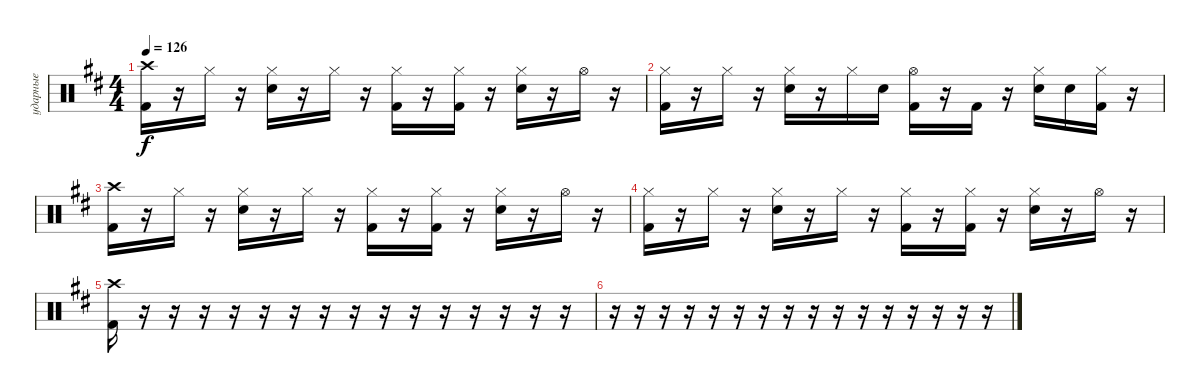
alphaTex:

\track ("ударные" "ударные") {instrument percussion}
\staff {score}
\articulation defaults
\ts (4 4)
\tempo 126
\clef neutral
\ks d
("Crash high (hit)" "Kick (hit) 2").16{dy f} r.16 "Hi-Hat (closed)".16 r.16 ("Hi-Hat (closed)" "Electric Snare (hit)").16 r.16 "Hi-Hat (closed)".16 r.16 ("Hi-Hat (closed)" "Kick (hit) 2").16 r.16 ("Hi-Hat (closed)" "Kick (hit) 2").16 r.16 ("Hi-Hat (closed)" "Electric Snare (hit)").16 r.16 "Hi-Hat (open)".16 r.16 |
("Hi-Hat (closed)" "Kick (hit) 2").16 r.16 "Hi-Hat (closed)".16 r.16 ("Hi-Hat (closed)" "Electric Snare (hit)").16 r.16 "Hi-Hat (closed)".16 "Electric Snare (hit)".16 ("Hi-Hat (open)" "Kick (hit) 2").16 r.16 "Kick (hit) 2".16 r.16 ("Hi-Hat (closed)" "Electric Snare (hit)").16 "Electric Snare (hit)".16 ("Hi-Hat (closed)" "Kick (hit) 2").16 r.16 |
("Crash high (hit)" "Kick (hit) 2").16 r.16 "Hi-Hat (closed)".16 r.16 ("Hi-Hat (closed)" "Electric Snare (hit)").16 r.16 "Hi-Hat (closed)".16 r.16 ("Hi-Hat (closed)" "Kick (hit) 2").16 r.16 ("Hi-Hat (closed)" "Kick (hit) 2").16 r.16 ("Hi-Hat (closed)" "Electric Snare (hit)").16 r.16 "Hi-Hat (open)".16 r.16 |
("Hi-Hat (closed)" "Kick (hit) 2").16 r.16 "Hi-Hat (closed)".16 r.16 ("Hi-Hat (closed)" "Electric Snare (hit)").16 r.16 "Hi-Hat (closed)".16 r.16 ("Hi-Hat (closed)" "Kick (hit) 2").16 r.16 ("Hi-Hat (closed)" "Kick (hit) 2").16 r.16 ("Hi-Hat (closed)" "Electric Snare (hit)").16 r.16 "Hi-Hat (open)".16 r.16 |
("Crash high (hit)" "Kick (hit) 2").16 r.16 r.16 r.16 r.16 r.16 r.16 r.16 r.16 r.16 r.16 r.16 r.16 r.16 r.16 r.16 |
r.16 r.16 r.16 r.16 r.16 r.16 r.16 r.16 r.16 r.16 r.16 r.16 r.16 r.16 r.16 r.16
